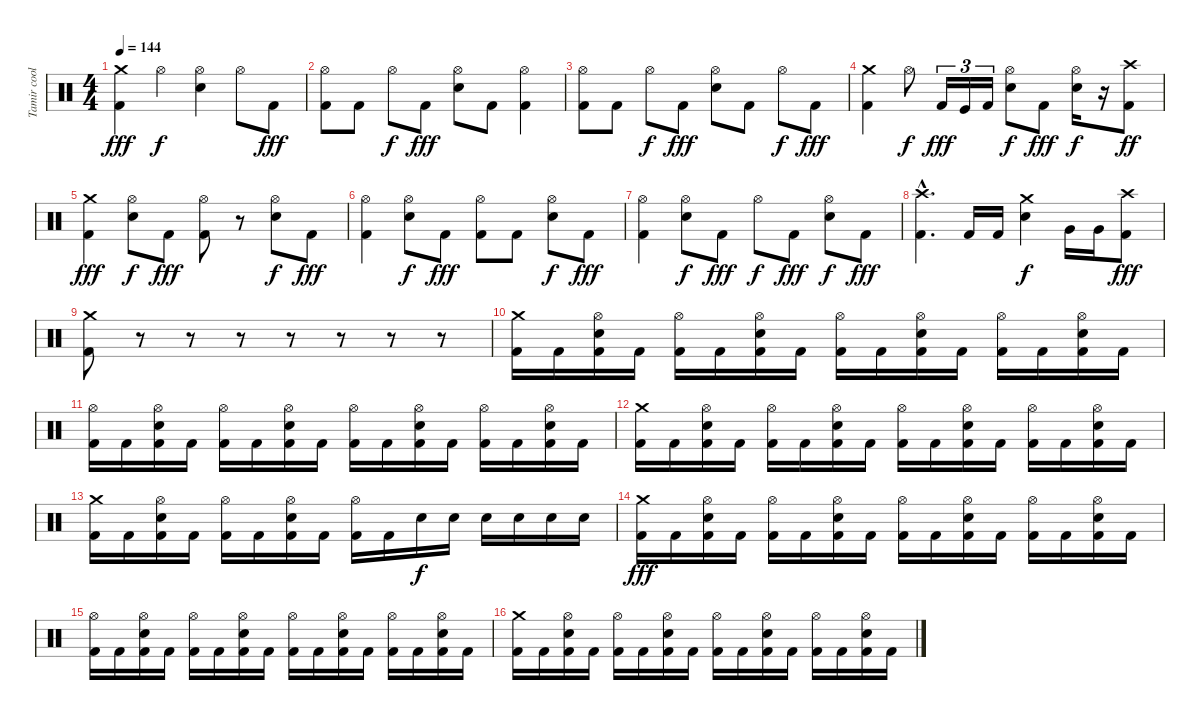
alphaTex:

\track ("Tamir coolberg" "Tamir cool") {instrument percussion}
\staff {score}
\articulation defaults
\ts (4 4)
\tempo 144
\clef neutral
\ks c
("Crash medium (hit)" "Kick (hit) 2").4{dy fff} "Hi-Hat (open)".4{dy f} ("Hi-Hat (open)" "Electric Snare (hit)").4 "Hi-Hat (open)".8 "Kick (hit) 2".8{dy fff} |
("Hi-Hat (open)" "Kick (hit) 2").8 "Kick (hit) 2".8 "Hi-Hat (open)".8{dy f} "Kick (hit) 2".8{dy fff} ("Hi-Hat (open)" "Electric Snare (hit)").8 "Kick (hit) 2".8 ("Hi-Hat (open)" "Kick (hit) 2").4 |
("Hi-Hat (open)" "Kick (hit) 2").8 "Kick (hit) 2".8 "Hi-Hat (open)".8{dy f} "Kick (hit) 2".8{dy fff} ("Hi-Hat (open)" "Electric Snare (hit)").8 "Kick (hit) 2".8 "Hi-Hat (open)".8{dy f} "Kick (hit) 2".8{dy fff} |
("Crash medium (hit)" "Kick (hit) 2").4 "Hi-Hat (open)".8{dy f} "Kick (hit) 2".16{tu (3 2) dy fff} "Kick (hit)".16{tu (3 2)} "Kick (hit) 2".16{tu (3 2)} ("Hi-Hat (open)" "Electric Snare (hit)").8{dy f} "Kick (hit) 2".8{dy fff} ("Hi-Hat (open)" "Electric Snare (hit)").16{dy f} r.16 ("Crash high (hit)" "Kick (hit) 2").8{dy ff} |
("Crash medium (hit)" "Kick (hit) 2").4{dy fff} ("Hi-Hat (open)" "Electric Snare (hit)").8{dy f} "Kick (hit) 2".8{dy fff} ("Hi-Hat (open)" "Kick (hit) 2").8 r.8 ("Hi-Hat (open)" "Electric Snare (hit)").8{dy f} "Kick (hit) 2".8{dy fff} |
("Hi-Hat (open)" "Kick (hit) 2").4 ("Hi-Hat (open)" "Electric Snare (hit)").8{dy f} "Kick (hit) 2".8{dy fff} ("Hi-Hat (open)" "Kick (hit) 2").8 "Kick (hit) 2".8 ("Hi-Hat (open)" "Electric Snare (hit)").8{dy f} "Kick (hit) 2".8{dy fff} |
("Hi-Hat (open)" "Kick (hit) 2").4 ("Hi-Hat (open)" "Electric Snare (hit)").8{dy f} "Kick (hit) 2".8{dy fff} "Hi-Hat (open)".8{dy f} "Kick (hit) 2".8{dy fff} ("Hi-Hat (open)" "Electric Snare (hit)").8{dy f} "Kick (hit) 2".8{dy fff} |
("Crash high (hit)"{hac} "Kick (hit) 2"{hac}).4{d} "Kick (hit) 2".16 "Kick (hit) 2".16 ("Crash medium (hit)" "Electric Snare (hit)").4{dy f} "Very Low Tom (hit)".16 "Very Low Tom (hit)".16 ("Crash high (hit)" "Kick (hit) 2").8{dy fff} |
("Crash medium (hit)" "Kick (hit) 2").8 r.8{volume 0} r.8 r.8 r.8 r.8 r.8 r.8 |
("Crash medium (hit)" "Kick (hit) 2").16{volume 13} "Kick (hit) 2".16 ("Hi-Hat (open)" "Snare (hit) 2" "Kick (hit) 2").16 "Kick (hit) 2".16 ("Hi-Hat (open)" "Kick (hit) 2").16 "Kick (hit) 2".16 ("Hi-Hat (open)" "Snare (hit) 2" "Kick (hit) 2").16 "Kick (hit) 2".16 ("Hi-Hat (open)" "Kick (hit) 2").16 "Kick (hit) 2".16 ("Hi-Hat (open)" "Snare (hit) 2" "Kick (hit) 2").16 "Kick (hit) 2".16 ("Hi-Hat (open)" "Kick (hit) 2").16 "Kick (hit) 2".16 ("Hi-Hat (open)" "Snare (hit) 2" "Kick (hit) 2").16 "Kick (hit) 2".16 |
("Hi-Hat (open)" "Kick (hit) 2").16 "Kick (hit) 2".16 ("Hi-Hat (open)" "Snare (hit) 2" "Kick (hit) 2").16 "Kick (hit) 2".16 ("Hi-Hat (open)" "Kick (hit) 2").16 "Kick (hit) 2".16 ("Hi-Hat (open)" "Snare (hit) 2" "Kick (hit) 2").16 "Kick (hit) 2".16 ("Hi-Hat (open)" "Kick (hit) 2").16 "Kick (hit) 2".16 ("Hi-Hat (open)" "Snare (hit) 2" "Kick (hit) 2").16 "Kick (hit) 2".16 ("Hi-Hat (open)" "Kick (hit) 2").16 "Kick (hit) 2".16 ("Hi-Hat (open)" "Snare (hit) 2" "Kick (hit) 2").16 "Kick (hit) 2".16 |
("Crash medium (hit)" "Kick (hit) 2").16 "Kick (hit) 2".16 ("Hi-Hat (open)" "Snare (hit) 2" "Kick (hit) 2").16 "Kick (hit) 2".16 ("Hi-Hat (open)" "Kick (hit) 2").16 "Kick (hit) 2".16 ("Hi-Hat (open)" "Snare (hit) 2" "Kick (hit) 2").16 "Kick (hit) 2".16 ("Hi-Hat (open)" "Kick (hit) 2").16 "Kick (hit) 2".16 ("Hi-Hat (open)" "Snare (hit) 2" "Kick (hit) 2").16 "Kick (hit) 2".16 ("Hi-Hat (open)" "Kick (hit) 2").16 "Kick (hit) 2".16 ("Hi-Hat (open)" "Snare (hit) 2" "Kick (hit) 2").16 "Kick (hit) 2".16 |
("Crash medium (hit)" "Kick (hit) 2").16 "Kick (hit) 2".16 ("Hi-Hat (open)" "Snare (hit) 2" "Kick (hit) 2").16 "Kick (hit) 2".16 ("Hi-Hat (open)" "Kick (hit) 2").16 "Kick (hit) 2".16 ("Hi-Hat (open)" "Snare (hit) 2" "Kick (hit) 2").16 "Kick (hit) 2".16 ("Hi-Hat (open)" "Kick (hit) 2").16 "Kick (hit) 2".16 "Snare (hit) 2".16{dy f} "Snare (hit) 2".16 "Snare (hit) 2".16 "Snare (hit) 2".16 "Snare (hit) 2".16 "Snare (hit) 2".16 |
("Crash medium (hit)" "Kick (hit) 2").16{dy fff volume 13} "Kick (hit) 2".16 ("Hi-Hat (open)" "Snare (hit) 2" "Kick (hit) 2").16 "Kick (hit) 2".16 ("Hi-Hat (open)" "Kick (hit) 2").16 "Kick (hit) 2".16 ("Hi-Hat (open)" "Snare (hit) 2" "Kick (hit) 2").16 "Kick (hit) 2".16 ("Hi-Hat (open)" "Kick (hit) 2").16 "Kick (hit) 2".16 ("Hi-Hat (open)" "Snare (hit) 2" "Kick (hit) 2").16 "Kick (hit) 2".16 ("Hi-Hat (open)" "Kick (hit) 2").16 "Kick (hit) 2".16 ("Hi-Hat (open)" "Snare (hit) 2" "Kick (hit) 2").16 "Kick (hit) 2".16 |
("Hi-Hat (open)" "Kick (hit) 2").16 "Kick (hit) 2".16 ("Hi-Hat (open)" "Snare (hit) 2" "Kick (hit) 2").16 "Kick (hit) 2".16 ("Hi-Hat (open)" "Kick (hit) 2").16 "Kick (hit) 2".16 ("Hi-Hat (open)" "Snare (hit) 2" "Kick (hit) 2").16 "Kick (hit) 2".16 ("Hi-Hat (open)" "Kick (hit) 2").16 "Kick (hit) 2".16 ("Hi-Hat (open)" "Snare (hit) 2" "Kick (hit) 2").16 "Kick (hit) 2".16 ("Hi-Hat (open)" "Kick (hit) 2").16 "Kick (hit) 2".16 ("Hi-Hat (open)" "Snare (hit) 2" "Kick (hit) 2").16 "Kick (hit) 2".16 |
("Crash medium (hit)" "Kick (hit) 2").16 "Kick (hit) 2".16 ("Hi-Hat (open)" "Snare (hit) 2" "Kick (hit) 2").16 "Kick (hit) 2".16 ("Hi-Hat (open)" "Kick (hit) 2").16 "Kick (hit) 2".16 ("Hi-Hat (open)" "Snare (hit) 2" "Kick (hit) 2").16 "Kick (hit) 2".16 ("Hi-Hat (open)" "Kick (hit) 2").16 "Kick (hit) 2".16 ("Hi-Hat (open)" "Snare (hit) 2" "Kick (hit) 2").16 "Kick (hit) 2".16 ("Hi-Hat (open)" "Kick (hit) 2").16 "Kick (hit) 2".16 ("Hi-Hat (open)" "Snare (hit) 2" "Kick (hit) 2").16 "Kick (hit) 2".16
